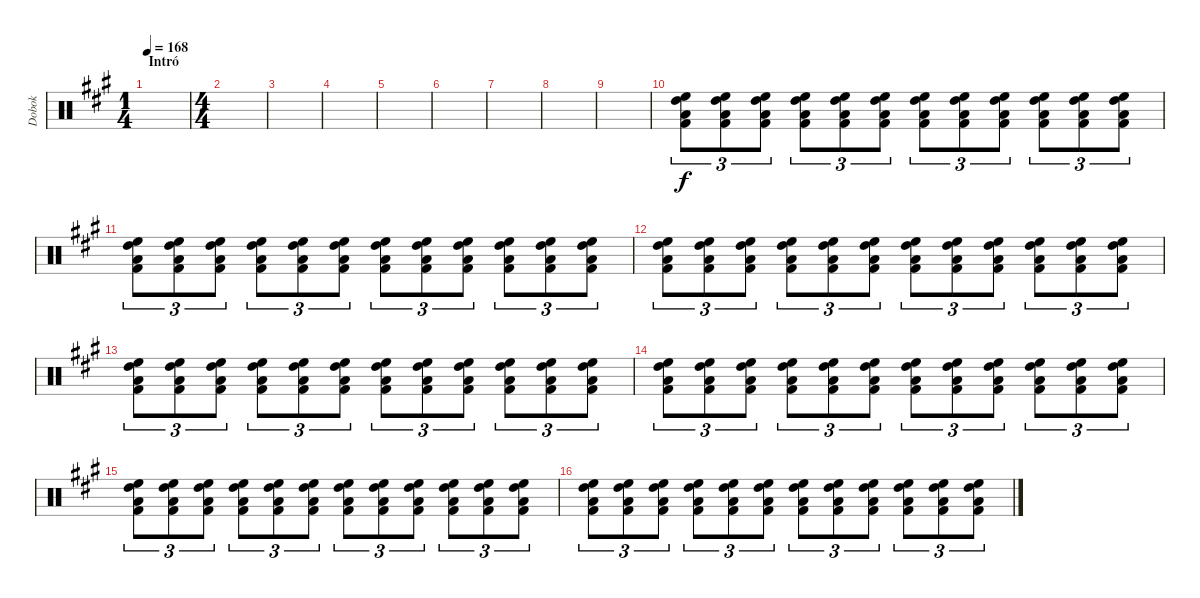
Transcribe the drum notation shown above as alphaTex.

\track ("Dobok" "Dobok") {instrument percussion}
\staff {score}
\articulation defaults
\ts (1 4)
\section ("" "Intró")
\tempo 168
\tempo 100
\tempo 168
\clef neutral
\ks f#minor
|
\ts (4 4)
|
|
|
|
|
|
|
|
("High Floor Tom (hit)" "High Tom (hit)" "Low Floor Tom (hit)" "Kick (hit) 2").8{tu (3 2)} ("High Floor Tom (hit)" "High Tom (hit)" "Low Floor Tom (hit)" "Kick (hit) 2").8{tu (3 2)} ("High Floor Tom (hit)" "High Tom (hit)" "Low Floor Tom (hit)" "Kick (hit) 2").8{tu (3 2)} ("High Floor Tom (hit)" "High Tom (hit)" "Low Floor Tom (hit)" "Kick (hit) 2").8{tu (3 2)} ("High Floor Tom (hit)" "High Tom (hit)" "Low Floor Tom (hit)" "Kick (hit) 2").8{tu (3 2)} ("High Floor Tom (hit)" "High Tom (hit)" "Low Floor Tom (hit)" "Kick (hit) 2").8{tu (3 2)} ("High Floor Tom (hit)" "High Tom (hit)" "Low Floor Tom (hit)" "Kick (hit) 2").8{tu (3 2)} ("High Floor Tom (hit)" "High Tom (hit)" "Low Floor Tom (hit)" "Kick (hit) 2").8{tu (3 2)} ("High Floor Tom (hit)" "High Tom (hit)" "Low Floor Tom (hit)" "Kick (hit) 2").8{tu (3 2)} ("High Floor Tom (hit)" "High Tom (hit)" "Low Floor Tom (hit)" "Kick (hit) 2").8{tu (3 2)} ("High Floor Tom (hit)" "High Tom (hit)" "Low Floor Tom (hit)" "Kick (hit) 2").8{tu (3 2)} ("High Floor Tom (hit)" "High Tom (hit)" "Low Floor Tom (hit)" "Kick (hit) 2").8{tu (3 2)} |
("High Floor Tom (hit)" "High Tom (hit)" "Low Floor Tom (hit)" "Kick (hit) 2").8{tu (3 2)} ("High Floor Tom (hit)" "High Tom (hit)" "Low Floor Tom (hit)" "Kick (hit) 2").8{tu (3 2)} ("High Floor Tom (hit)" "High Tom (hit)" "Low Floor Tom (hit)" "Kick (hit) 2").8{tu (3 2)} ("High Floor Tom (hit)" "High Tom (hit)" "Low Floor Tom (hit)" "Kick (hit) 2").8{tu (3 2)} ("High Floor Tom (hit)" "High Tom (hit)" "Low Floor Tom (hit)" "Kick (hit) 2").8{tu (3 2)} ("High Floor Tom (hit)" "High Tom (hit)" "Low Floor Tom (hit)" "Kick (hit) 2").8{tu (3 2)} ("High Floor Tom (hit)" "High Tom (hit)" "Low Floor Tom (hit)" "Kick (hit) 2").8{tu (3 2)} ("High Floor Tom (hit)" "High Tom (hit)" "Low Floor Tom (hit)" "Kick (hit) 2").8{tu (3 2)} ("High Floor Tom (hit)" "High Tom (hit)" "Low Floor Tom (hit)" "Kick (hit) 2").8{tu (3 2)} ("High Floor Tom (hit)" "High Tom (hit)" "Low Floor Tom (hit)" "Kick (hit) 2").8{tu (3 2)} ("High Floor Tom (hit)" "High Tom (hit)" "Low Floor Tom (hit)" "Kick (hit) 2").8{tu (3 2)} ("High Floor Tom (hit)" "High Tom (hit)" "Low Floor Tom (hit)" "Kick (hit) 2").8{tu (3 2)} |
("High Floor Tom (hit)" "High Tom (hit)" "Low Floor Tom (hit)" "Kick (hit) 2").8{tu (3 2)} ("High Floor Tom (hit)" "High Tom (hit)" "Low Floor Tom (hit)" "Kick (hit) 2").8{tu (3 2)} ("High Floor Tom (hit)" "High Tom (hit)" "Low Floor Tom (hit)" "Kick (hit) 2").8{tu (3 2)} ("High Floor Tom (hit)" "High Tom (hit)" "Low Floor Tom (hit)" "Kick (hit) 2").8{tu (3 2)} ("High Floor Tom (hit)" "High Tom (hit)" "Low Floor Tom (hit)" "Kick (hit) 2").8{tu (3 2)} ("High Floor Tom (hit)" "High Tom (hit)" "Low Floor Tom (hit)" "Kick (hit) 2").8{tu (3 2)} ("High Floor Tom (hit)" "High Tom (hit)" "Low Floor Tom (hit)" "Kick (hit) 2").8{tu (3 2)} ("High Floor Tom (hit)" "High Tom (hit)" "Low Floor Tom (hit)" "Kick (hit) 2").8{tu (3 2)} ("High Floor Tom (hit)" "High Tom (hit)" "Low Floor Tom (hit)" "Kick (hit) 2").8{tu (3 2)} ("High Floor Tom (hit)" "High Tom (hit)" "Low Floor Tom (hit)" "Kick (hit) 2").8{tu (3 2)} ("High Floor Tom (hit)" "High Tom (hit)" "Low Floor Tom (hit)" "Kick (hit) 2").8{tu (3 2)} ("High Floor Tom (hit)" "High Tom (hit)" "Low Floor Tom (hit)" "Kick (hit) 2").8{tu (3 2)} |
("High Floor Tom (hit)" "High Tom (hit)" "Low Floor Tom (hit)" "Kick (hit) 2").8{tu (3 2)} ("High Floor Tom (hit)" "High Tom (hit)" "Low Floor Tom (hit)" "Kick (hit) 2").8{tu (3 2)} ("High Floor Tom (hit)" "High Tom (hit)" "Low Floor Tom (hit)" "Kick (hit) 2").8{tu (3 2)} ("High Floor Tom (hit)" "High Tom (hit)" "Low Floor Tom (hit)" "Kick (hit) 2").8{tu (3 2)} ("High Floor Tom (hit)" "High Tom (hit)" "Low Floor Tom (hit)" "Kick (hit) 2").8{tu (3 2)} ("High Floor Tom (hit)" "High Tom (hit)" "Low Floor Tom (hit)" "Kick (hit) 2").8{tu (3 2)} ("High Floor Tom (hit)" "High Tom (hit)" "Low Floor Tom (hit)" "Kick (hit) 2").8{tu (3 2)} ("High Floor Tom (hit)" "High Tom (hit)" "Low Floor Tom (hit)" "Kick (hit) 2").8{tu (3 2)} ("High Floor Tom (hit)" "High Tom (hit)" "Low Floor Tom (hit)" "Kick (hit) 2").8{tu (3 2)} ("High Floor Tom (hit)" "High Tom (hit)" "Low Floor Tom (hit)" "Kick (hit) 2").8{tu (3 2)} ("High Floor Tom (hit)" "High Tom (hit)" "Low Floor Tom (hit)" "Kick (hit) 2").8{tu (3 2)} ("High Floor Tom (hit)" "High Tom (hit)" "Low Floor Tom (hit)" "Kick (hit) 2").8{tu (3 2)} |
("High Floor Tom (hit)" "High Tom (hit)" "Low Floor Tom (hit)" "Kick (hit) 2").8{tu (3 2)} ("High Floor Tom (hit)" "High Tom (hit)" "Low Floor Tom (hit)" "Kick (hit) 2").8{tu (3 2)} ("High Floor Tom (hit)" "High Tom (hit)" "Low Floor Tom (hit)" "Kick (hit) 2").8{tu (3 2)} ("High Floor Tom (hit)" "High Tom (hit)" "Low Floor Tom (hit)" "Kick (hit) 2").8{tu (3 2)} ("High Floor Tom (hit)" "High Tom (hit)" "Low Floor Tom (hit)" "Kick (hit) 2").8{tu (3 2)} ("High Floor Tom (hit)" "High Tom (hit)" "Low Floor Tom (hit)" "Kick (hit) 2").8{tu (3 2)} ("High Floor Tom (hit)" "High Tom (hit)" "Low Floor Tom (hit)" "Kick (hit) 2").8{tu (3 2)} ("High Floor Tom (hit)" "High Tom (hit)" "Low Floor Tom (hit)" "Kick (hit) 2").8{tu (3 2)} ("High Floor Tom (hit)" "High Tom (hit)" "Low Floor Tom (hit)" "Kick (hit) 2").8{tu (3 2)} ("High Floor Tom (hit)" "High Tom (hit)" "Low Floor Tom (hit)" "Kick (hit) 2").8{tu (3 2)} ("High Floor Tom (hit)" "High Tom (hit)" "Low Floor Tom (hit)" "Kick (hit) 2").8{tu (3 2)} ("High Floor Tom (hit)" "High Tom (hit)" "Low Floor Tom (hit)" "Kick (hit) 2").8{tu (3 2)} |
("High Floor Tom (hit)" "High Tom (hit)" "Low Floor Tom (hit)" "Kick (hit) 2").8{tu (3 2)} ("High Floor Tom (hit)" "High Tom (hit)" "Low Floor Tom (hit)" "Kick (hit) 2").8{tu (3 2)} ("High Floor Tom (hit)" "High Tom (hit)" "Low Floor Tom (hit)" "Kick (hit) 2").8{tu (3 2)} ("High Floor Tom (hit)" "High Tom (hit)" "Low Floor Tom (hit)" "Kick (hit) 2").8{tu (3 2)} ("High Floor Tom (hit)" "High Tom (hit)" "Low Floor Tom (hit)" "Kick (hit) 2").8{tu (3 2)} ("High Floor Tom (hit)" "High Tom (hit)" "Low Floor Tom (hit)" "Kick (hit) 2").8{tu (3 2)} ("High Floor Tom (hit)" "High Tom (hit)" "Low Floor Tom (hit)" "Kick (hit) 2").8{tu (3 2)} ("High Floor Tom (hit)" "High Tom (hit)" "Low Floor Tom (hit)" "Kick (hit) 2").8{tu (3 2)} ("High Floor Tom (hit)" "High Tom (hit)" "Low Floor Tom (hit)" "Kick (hit) 2").8{tu (3 2)} ("High Floor Tom (hit)" "High Tom (hit)" "Low Floor Tom (hit)" "Kick (hit) 2").8{tu (3 2)} ("High Floor Tom (hit)" "High Tom (hit)" "Low Floor Tom (hit)" "Kick (hit) 2").8{tu (3 2)} ("High Floor Tom (hit)" "High Tom (hit)" "Low Floor Tom (hit)" "Kick (hit) 2").8{tu (3 2)} |
("High Floor Tom (hit)" "High Tom (hit)" "Low Floor Tom (hit)" "Kick (hit) 2").8{tu (3 2)} ("High Floor Tom (hit)" "High Tom (hit)" "Low Floor Tom (hit)" "Kick (hit) 2").8{tu (3 2)} ("High Floor Tom (hit)" "High Tom (hit)" "Low Floor Tom (hit)" "Kick (hit) 2").8{tu (3 2)} ("High Floor Tom (hit)" "High Tom (hit)" "Low Floor Tom (hit)" "Kick (hit) 2").8{tu (3 2)} ("High Floor Tom (hit)" "High Tom (hit)" "Low Floor Tom (hit)" "Kick (hit) 2").8{tu (3 2)} ("High Floor Tom (hit)" "High Tom (hit)" "Low Floor Tom (hit)" "Kick (hit) 2").8{tu (3 2)} ("High Floor Tom (hit)" "High Tom (hit)" "Low Floor Tom (hit)" "Kick (hit) 2").8{tu (3 2)} ("High Floor Tom (hit)" "High Tom (hit)" "Low Floor Tom (hit)" "Kick (hit) 2").8{tu (3 2)} ("High Floor Tom (hit)" "High Tom (hit)" "Low Floor Tom (hit)" "Kick (hit) 2").8{tu (3 2)} ("High Floor Tom (hit)" "High Tom (hit)" "Low Floor Tom (hit)" "Kick (hit) 2").8{tu (3 2)} ("High Floor Tom (hit)" "High Tom (hit)" "Low Floor Tom (hit)" "Kick (hit) 2").8{tu (3 2)} ("High Floor Tom (hit)" "High Tom (hit)" "Low Floor Tom (hit)" "Kick (hit) 2").8{tu (3 2)}
